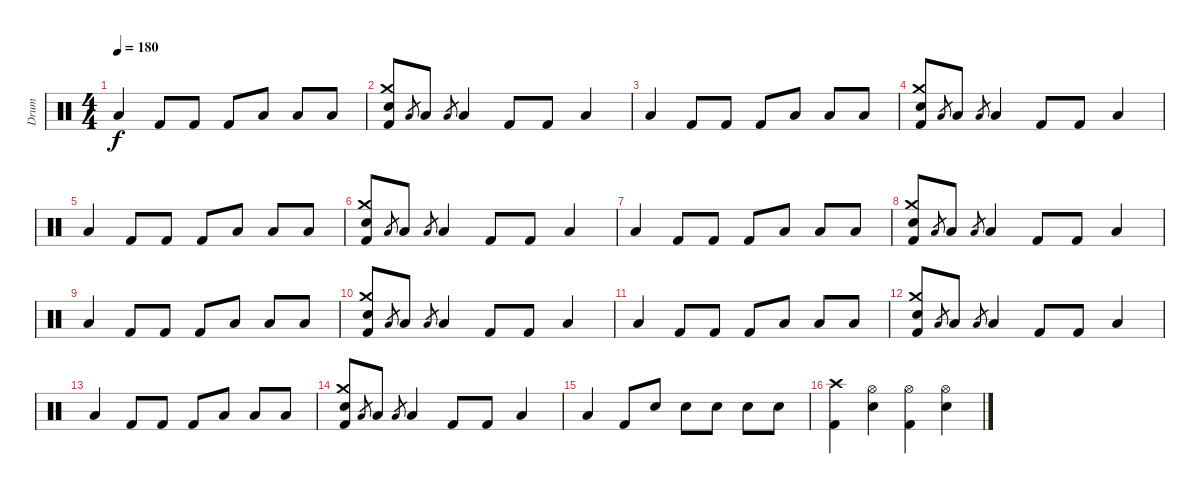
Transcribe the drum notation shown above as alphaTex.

\track ("Drum" "Drum") {instrument percussion}
\staff {score}
\articulation defaults
\ts (4 4)
\tempo 180
\clef neutral
\ks c "Low Tom (hit)".4{dy f} "Kick (hit) 2".8 "Kick (hit) 2".8 "Kick (hit) 2".8 "Low Tom (hit)".8 "Low Tom (hit)".8 "Low Tom (hit)".8
|
("Crash medium (hit)" "Electric Snare (hit)" "Kick (hit) 2").8 "Low Tom (hit)".8{gr} "Low Tom (hit)".8 "Low Tom (hit)".8{gr} "Low Tom (hit)".4 "Kick (hit) 2".8 "Kick (hit) 2".8 "Low Tom (hit)".4 |
"Low Tom (hit)".4 "Kick (hit) 2".8 "Kick (hit) 2".8 "Kick (hit) 2".8 "Low Tom (hit)".8 "Low Tom (hit)".8 "Low Tom (hit)".8 |
("Crash medium (hit)" "Electric Snare (hit)" "Kick (hit) 2").8 "Low Tom (hit)".8{gr} "Low Tom (hit)".8 "Low Tom (hit)".8{gr} "Low Tom (hit)".4 "Kick (hit) 2".8 "Kick (hit) 2".8 "Low Tom (hit)".4 |
"Low Tom (hit)".4 "Kick (hit) 2".8 "Kick (hit) 2".8 "Kick (hit) 2".8 "Low Tom (hit)".8 "Low Tom (hit)".8 "Low Tom (hit)".8 |
("Crash medium (hit)" "Electric Snare (hit)" "Kick (hit) 2").8 "Low Tom (hit)".8{gr} "Low Tom (hit)".8 "Low Tom (hit)".8{gr} "Low Tom (hit)".4 "Kick (hit) 2".8 "Kick (hit) 2".8 "Low Tom (hit)".4 |
"Low Tom (hit)".4 "Kick (hit) 2".8 "Kick (hit) 2".8 "Kick (hit) 2".8 "Low Tom (hit)".8 "Low Tom (hit)".8 "Low Tom (hit)".8 |
("Crash medium (hit)" "Electric Snare (hit)" "Kick (hit) 2").8 "Low Tom (hit)".8{gr} "Low Tom (hit)".8 "Low Tom (hit)".8{gr} "Low Tom (hit)".4 "Kick (hit) 2".8 "Kick (hit) 2".8 "Low Tom (hit)".4 |
"Low Tom (hit)".4 "Kick (hit) 2".8 "Kick (hit) 2".8 "Kick (hit) 2".8 "Low Tom (hit)".8 "Low Tom (hit)".8 "Low Tom (hit)".8 |
("Crash medium (hit)" "Electric Snare (hit)" "Kick (hit) 2").8 "Low Tom (hit)".8{gr} "Low Tom (hit)".8 "Low Tom (hit)".8{gr} "Low Tom (hit)".4 "Kick (hit) 2".8 "Kick (hit) 2".8 "Low Tom (hit)".4 |
"Low Tom (hit)".4 "Kick (hit) 2".8 "Kick (hit) 2".8 "Kick (hit) 2".8 "Low Tom (hit)".8 "Low Tom (hit)".8 "Low Tom (hit)".8 |
("Crash medium (hit)" "Electric Snare (hit)" "Kick (hit) 2").8 "Low Tom (hit)".8{gr} "Low Tom (hit)".8 "Low Tom (hit)".8{gr} "Low Tom (hit)".4 "Kick (hit) 2".8 "Kick (hit) 2".8 "Low Tom (hit)".4 |
"Low Tom (hit)".4 "Kick (hit) 2".8 "Kick (hit) 2".8 "Kick (hit) 2".8 "Low Tom (hit)".8 "Low Tom (hit)".8 "Low Tom (hit)".8 |
("Crash medium (hit)" "Electric Snare (hit)" "Kick (hit) 2").8 "Low Tom (hit)".8{gr} "Low Tom (hit)".8 "Low Tom (hit)".8{gr} "Low Tom (hit)".4 "Kick (hit) 2".8 "Kick (hit) 2".8 "Low Tom (hit)".4 |
"Low Tom (hit)".4 "Kick (hit) 2".8 "Electric Snare (hit)".8 "Electric Snare (hit)".8 "Electric Snare (hit)".8 "Electric Snare (hit)".8 "Electric Snare (hit)".8 |
("Crash high (hit)" "Kick (hit) 2").4 ("Hi-Hat (open)" "Electric Snare (hit)").4 ("Hi-Hat (open)" "Kick (hit) 2").4 ("Hi-Hat (open)" "Electric Snare (hit)").4
